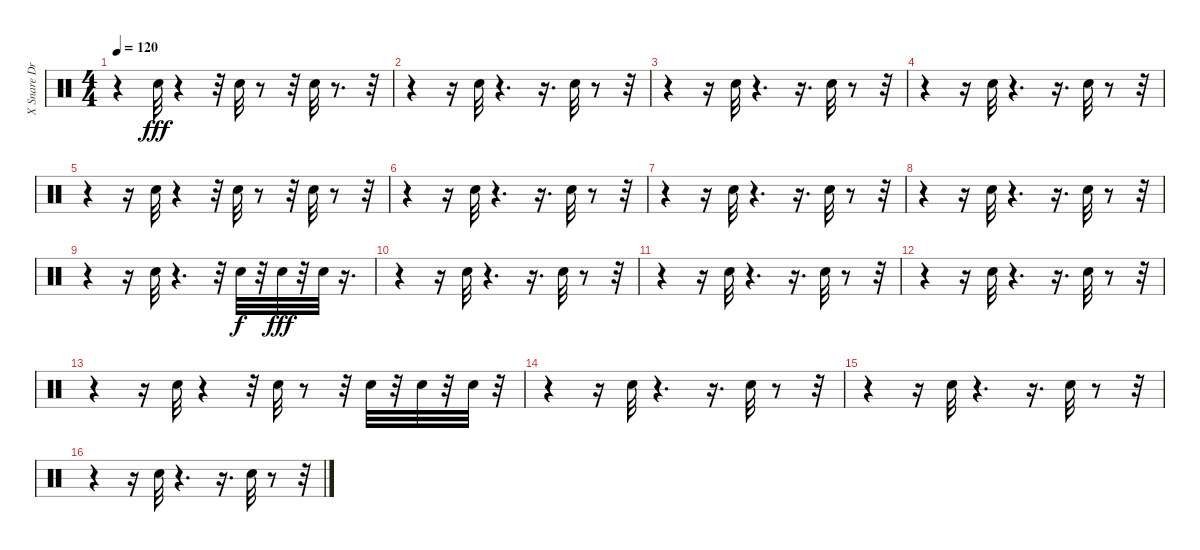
\track ("X Snare Drum        " "X Snare Dr") {instrument percussion}
\staff {score}
\articulation defaults
\ts (4 4)
\tempo 120
\clef neutral
\ks c
r.4{dy fff} "Snare (hit) 2".32 r.4 r.32 "Snare (hit) 2".32 r.8 r.32 "Snare (hit) 2".32 r.8{d} r.32 |
r.4 r.16 "Snare (hit) 2".32 r.4{d} r.16{d} "Snare (hit) 2".32 r.8 r.32 |
r.4 r.16 "Snare (hit) 2".32 r.4{d} r.16{d} "Snare (hit) 2".32 r.8 r.32 |
r.4 r.16 "Snare (hit) 2".32 r.4{d} r.16{d} "Snare (hit) 2".32 r.8 r.32 |
r.4 r.16 "Snare (hit) 2".32 r.4 r.32 "Snare (hit) 2".32 r.8 r.32 "Snare (hit) 2".32 r.8 r.32 |
r.4 r.16 "Snare (hit) 2".32 r.4{d} r.16{d} "Snare (hit) 2".32 r.8 r.32 |
r.4 r.16 "Snare (hit) 2".32 r.4{d} r.16{d} "Snare (hit) 2".32 r.8 r.32 |
r.4 r.16 "Snare (hit) 2".32 r.4{d} r.16{d} "Snare (hit) 2".32 r.8 r.32 |
r.4 r.16 "Snare (hit) 2".32 r.4{d} r.32 "Snare (hit) 2".32{dy f} r.32 "Snare (hit) 2".32{dy fff} r.32 "Snare (hit) 2".32 r.16{d} |
r.4 r.16 "Snare (hit) 2".32 r.4{d} r.16{d} "Snare (hit) 2".32 r.8 r.32 |
r.4 r.16 "Snare (hit) 2".32 r.4{d} r.16{d} "Snare (hit) 2".32 r.8 r.32 |
r.4 r.16 "Snare (hit) 2".32 r.4{d} r.16{d} "Snare (hit) 2".32 r.8 r.32 |
r.4 r.16 "Snare (hit) 2".32 r.4 r.32 "Snare (hit) 2".32 r.8 r.32 "Snare (hit) 2".32 r.32 "Snare (hit) 2".32 r.32 "Snare (hit) 2".32 r.32 |
r.4 r.16 "Snare (hit) 2".32 r.4{d} r.16{d} "Snare (hit) 2".32 r.8 r.32 |
r.4 r.16 "Snare (hit) 2".32 r.4{d} r.16{d} "Snare (hit) 2".32 r.8 r.32 |
r.4 r.16 "Snare (hit) 2".32 r.4{d} r.16{d} "Snare (hit) 2".32 r.8 r.32
